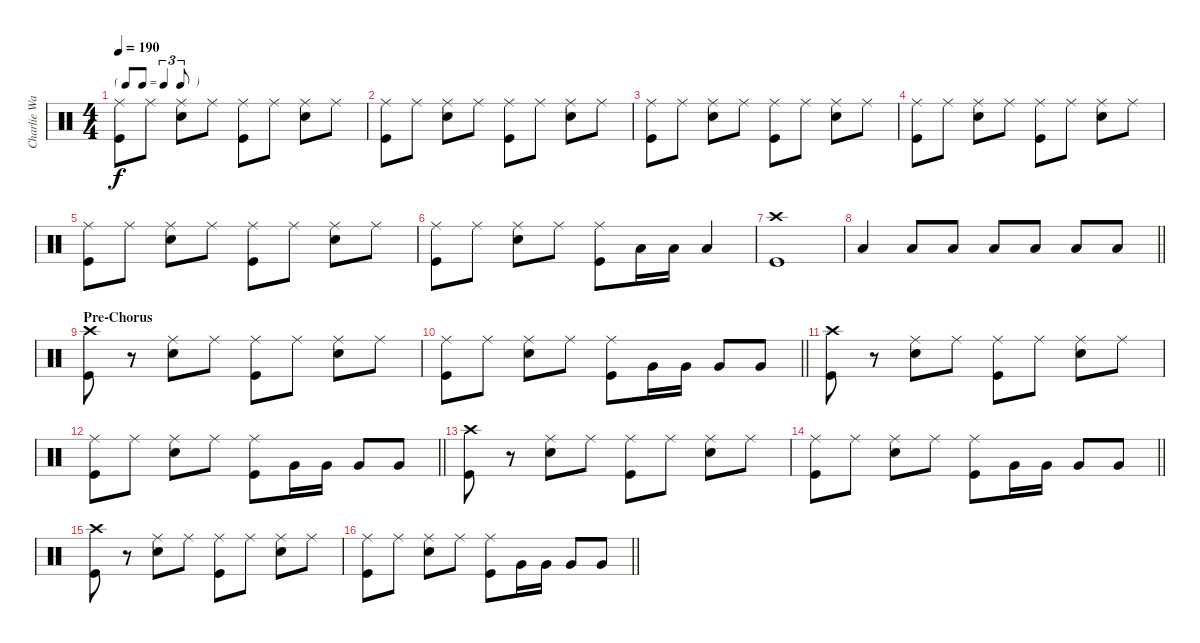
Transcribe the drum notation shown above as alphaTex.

\track ("Charlie Watts" "Charlie Wa") {instrument percussion}
\staff {score}
\articulation defaults
\ts (4 4)
\tf triplet8th
\tempo 190
\clef neutral
\ks c
("Ride (middle)" "Kick (hit)").8{dy f} "Ride (middle)".8 ("Ride (middle)" "Snare (hit) 2").8 "Ride (middle)".8 ("Ride (middle)" "Kick (hit)").8 "Ride (middle)".8 ("Ride (middle)" "Snare (hit) 2").8 "Ride (middle)".8 |
("Ride (middle)" "Kick (hit)").8 "Ride (middle)".8 ("Ride (middle)" "Snare (hit) 2").8 "Ride (middle)".8 ("Ride (middle)" "Kick (hit)").8 "Ride (middle)".8 ("Ride (middle)" "Snare (hit) 2").8 "Ride (middle)".8 |
("Ride (middle)" "Kick (hit)").8 "Ride (middle)".8 ("Ride (middle)" "Snare (hit) 2").8 "Ride (middle)".8 ("Ride (middle)" "Kick (hit)").8 "Ride (middle)".8 ("Ride (middle)" "Snare (hit) 2").8 "Ride (middle)".8 |
("Ride (middle)" "Kick (hit)").8 "Ride (middle)".8 ("Ride (middle)" "Snare (hit) 2").8 "Ride (middle)".8 ("Ride (middle)" "Kick (hit)").8 "Ride (middle)".8 ("Ride (middle)" "Snare (hit) 2").8 "Ride (middle)".8 |
("Ride (middle)" "Kick (hit)").8 "Ride (middle)".8 ("Ride (middle)" "Snare (hit) 2").8 "Ride (middle)".8 ("Ride (middle)" "Kick (hit)").8 "Ride (middle)".8 ("Ride (middle)" "Snare (hit) 2").8 "Ride (middle)".8 |
("Ride (middle)" "Kick (hit)").8 "Ride (middle)".8 ("Ride (middle)" "Snare (hit) 2").8 "Ride (middle)".8 ("Ride (middle)" "Kick (hit)").8 "Low Tom (hit)".16 "Low Tom (hit)".16 "Low Tom (hit)".4 |
("Crash high (hit)" "Kick (hit)").1 |
\barLineRight lightlight "Low Tom (hit)".4 "Low Tom (hit)".8 "Low Tom (hit)".8 "Low Tom (hit)".8 "Low Tom (hit)".8 "Low Tom (hit)".8 "Low Tom (hit)".8
|
\section ("" "Pre-Chorus")
("Crash high (hit)" "Kick (hit)").8 r.8 ("Ride (middle)" "Snare (hit) 2").8 "Ride (middle)".8 ("Ride (middle)" "Kick (hit)").8 "Ride (middle)".8 ("Ride (middle)" "Snare (hit) 2").8 "Ride (middle)".8 |
\barLineRight lightlight
("Ride (middle)" "Kick (hit)").8 "Ride (middle)".8 ("Ride (middle)" "Snare (hit) 2").8 "Ride (middle)".8 ("Ride (middle)" "Kick (hit)").8 "Very Low Tom (hit)".16 "Very Low Tom (hit)".16 "Very Low Tom (hit)".8 "Very Low Tom (hit)".8 |
("Crash high (hit)" "Kick (hit)").8 r.8 ("Ride (middle)" "Snare (hit) 2").8 "Ride (middle)".8 ("Ride (middle)" "Kick (hit)").8 "Ride (middle)".8 ("Ride (middle)" "Snare (hit) 2").8 "Ride (middle)".8 |
\barLineRight lightlight
("Ride (middle)" "Kick (hit)").8 "Ride (middle)".8 ("Ride (middle)" "Snare (hit) 2").8 "Ride (middle)".8 ("Ride (middle)" "Kick (hit)").8 "Very Low Tom (hit)".16 "Very Low Tom (hit)".16 "Very Low Tom (hit)".8 "Very Low Tom (hit)".8 |
("Crash high (hit)" "Kick (hit)").8 r.8 ("Ride (middle)" "Snare (hit) 2").8 "Ride (middle)".8 ("Ride (middle)" "Kick (hit)").8 "Ride (middle)".8 ("Ride (middle)" "Snare (hit) 2").8 "Ride (middle)".8 |
\barLineRight lightlight
("Ride (middle)" "Kick (hit)").8 "Ride (middle)".8 ("Ride (middle)" "Snare (hit) 2").8 "Ride (middle)".8 ("Ride (middle)" "Kick (hit)").8 "Very Low Tom (hit)".16 "Very Low Tom (hit)".16 "Very Low Tom (hit)".8 "Very Low Tom (hit)".8 |
("Crash high (hit)" "Kick (hit)").8 r.8 ("Ride (middle)" "Snare (hit) 2").8 "Ride (middle)".8 ("Ride (middle)" "Kick (hit)").8 "Ride (middle)".8 ("Ride (middle)" "Snare (hit) 2").8 "Ride (middle)".8 |
\barLineRight lightlight
("Ride (middle)" "Kick (hit)").8 "Ride (middle)".8 ("Ride (middle)" "Snare (hit) 2").8 "Ride (middle)".8 ("Ride (middle)" "Kick (hit)").8 "Very Low Tom (hit)".16 "Very Low Tom (hit)".16 "Very Low Tom (hit)".8 "Very Low Tom (hit)".8
